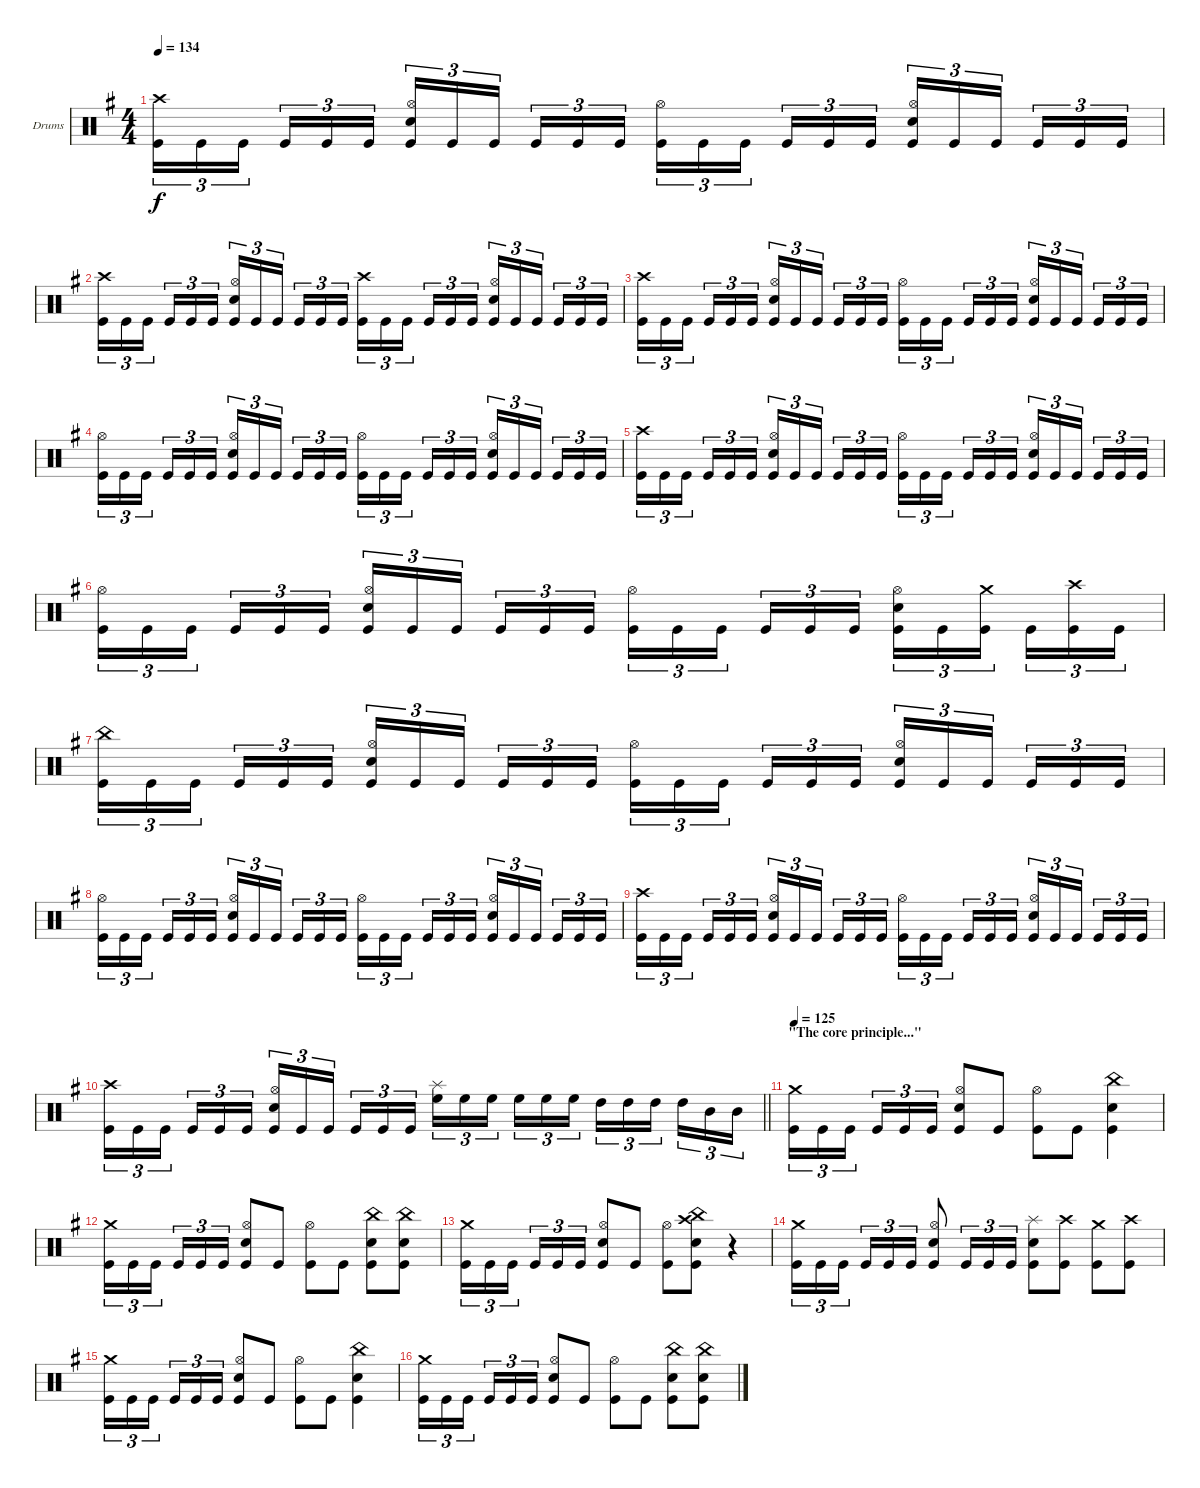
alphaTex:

\bracketExtendMode groupsimilarinstruments
\firstSystemTrackNameOrientation horizontal
\otherSystemsTrackNameOrientation horizontal
\track ("Drumkit" "Drums") {instrument percussion}
\staff {score}
\articulation defaults
\ts (4 4)
\tempo 134
\clef neutral
\scale
0.5
\ks g
("Crash high (hit)" "Kick (hit)").16{tu (3 2) dy f} "Kick (hit)".16{tu (3 2)} "Kick (hit)".16{tu (3 2)} "Kick (hit)".16{tu (3 2)} "Kick (hit)".16{tu (3 2)} "Kick (hit)".16{tu (3 2)} ("Hi-Hat (open)" "Snare (hit) 2" "Kick (hit)").16{tu (3 2)} "Kick (hit)".16{tu (3 2)} "Kick (hit)".16{tu (3 2)} "Kick (hit)".16{tu (3 2)} "Kick (hit)".16{tu (3 2)} "Kick (hit)".16{tu (3 2)} ("Hi-Hat (open)" "Kick (hit)").16{tu (3 2)} "Kick (hit)".16{tu (3 2)} "Kick (hit)".16{tu (3 2)} "Kick (hit)".16{tu (3 2)} "Kick (hit)".16{tu (3 2)} "Kick (hit)".16{tu (3 2)} ("Hi-Hat (open)" "Snare (hit) 2" "Kick (hit)").16{tu (3 2)} "Kick (hit)".16{tu (3 2)} "Kick (hit)".16{tu (3 2)} "Kick (hit)".16{tu (3 2)} "Kick (hit)".16{tu (3 2)} "Kick (hit)".16{tu (3 2)} |
\scale
0.5 ("Crash high (hit)" "Kick (hit)").16{tu (3 2)} "Kick (hit)".16{tu (3 2)} "Kick (hit)".16{tu (3 2)} "Kick (hit)".16{tu (3 2)} "Kick (hit)".16{tu (3 2)} "Kick (hit)".16{tu (3 2)} ("Hi-Hat (open)" "Snare (hit) 2" "Kick (hit)").16{tu (3 2)} "Kick (hit)".16{tu (3 2)} "Kick (hit)".16{tu (3 2)} "Kick (hit)".16{tu (3 2)} "Kick (hit)".16{tu (3 2)} "Kick (hit)".16{tu (3 2)} ("Crash high (hit)" "Kick (hit)").16{tu (3 2)} "Kick (hit)".16{tu (3 2)} "Kick (hit)".16{tu (3 2)} "Kick (hit)".16{tu (3 2)} "Kick (hit)".16{tu (3 2)} "Kick (hit)".16{tu (3 2)} ("Hi-Hat (open)" "Snare (hit) 2" "Kick (hit)").16{tu (3 2)} "Kick (hit)".16{tu (3 2)} "Kick (hit)".16{tu (3 2)} "Kick (hit)".16{tu (3 2)} "Kick (hit)".16{tu (3 2)} "Kick (hit)".16{tu (3 2)} |
\scale
0.5 ("Crash high (hit)" "Kick (hit)").16{tu (3 2)} "Kick (hit)".16{tu (3 2)} "Kick (hit)".16{tu (3 2)} "Kick (hit)".16{tu (3 2)} "Kick (hit)".16{tu (3 2)} "Kick (hit)".16{tu (3 2)} ("Hi-Hat (open)" "Snare (hit) 2" "Kick (hit)").16{tu (3 2)} "Kick (hit)".16{tu (3 2)} "Kick (hit)".16{tu (3 2)} "Kick (hit)".16{tu (3 2)} "Kick (hit)".16{tu (3 2)} "Kick (hit)".16{tu (3 2)} ("Hi-Hat (open)" "Kick (hit)").16{tu (3 2)} "Kick (hit)".16{tu (3 2)} "Kick (hit)".16{tu (3 2)} "Kick (hit)".16{tu (3 2)} "Kick (hit)".16{tu (3 2)} "Kick (hit)".16{tu (3 2)} ("Hi-Hat (open)" "Snare (hit) 2" "Kick (hit)").16{tu (3 2)} "Kick (hit)".16{tu (3 2)} "Kick (hit)".16{tu (3 2)} "Kick (hit)".16{tu (3 2)} "Kick (hit)".16{tu (3 2)} "Kick (hit)".16{tu (3 2)} |
\scale
0.5 ("Hi-Hat (open)" "Kick (hit)").16{tu (3 2)} "Kick (hit)".16{tu (3 2)} "Kick (hit)".16{tu (3 2)} "Kick (hit)".16{tu (3 2)} "Kick (hit)".16{tu (3 2)} "Kick (hit)".16{tu (3 2)} ("Hi-Hat (open)" "Snare (hit) 2" "Kick (hit)").16{tu (3 2)} "Kick (hit)".16{tu (3 2)} "Kick (hit)".16{tu (3 2)} "Kick (hit)".16{tu (3 2)} "Kick (hit)".16{tu (3 2)} "Kick (hit)".16{tu (3 2)} ("Hi-Hat (open)" "Kick (hit)").16{tu (3 2)} "Kick (hit)".16{tu (3 2)} "Kick (hit)".16{tu (3 2)} "Kick (hit)".16{tu (3 2)} "Kick (hit)".16{tu (3 2)} "Kick (hit)".16{tu (3 2)} ("Hi-Hat (open)" "Snare (hit) 2" "Kick (hit)").16{tu (3 2)} "Kick (hit)".16{tu (3 2)} "Kick (hit)".16{tu (3 2)} "Kick (hit)".16{tu (3 2)} "Kick (hit)".16{tu (3 2)} "Kick (hit)".16{tu (3 2)} |
\scale
0.5 ("Crash high (hit)" "Kick (hit)").16{tu (3 2)} "Kick (hit)".16{tu (3 2)} "Kick (hit)".16{tu (3 2)} "Kick (hit)".16{tu (3 2)} "Kick (hit)".16{tu (3 2)} "Kick (hit)".16{tu (3 2)} ("Hi-Hat (open)" "Snare (hit) 2" "Kick (hit)").16{tu (3 2)} "Kick (hit)".16{tu (3 2)} "Kick (hit)".16{tu (3 2)} "Kick (hit)".16{tu (3 2)} "Kick (hit)".16{tu (3 2)} "Kick (hit)".16{tu (3 2)} ("Hi-Hat (open)" "Kick (hit)").16{tu (3 2)} "Kick (hit)".16{tu (3 2)} "Kick (hit)".16{tu (3 2)} "Kick (hit)".16{tu (3 2)} "Kick (hit)".16{tu (3 2)} "Kick (hit)".16{tu (3 2)} ("Hi-Hat (open)" "Snare (hit) 2" "Kick (hit)").16{tu (3 2)} "Kick (hit)".16{tu (3 2)} "Kick (hit)".16{tu (3 2)} "Kick (hit)".16{tu (3 2)} "Kick (hit)".16{tu (3 2)} "Kick (hit)".16{tu (3 2)} |
\scale
0.5 ("Hi-Hat (open)" "Kick (hit)").16{tu (3 2)} "Kick (hit)".16{tu (3 2)} "Kick (hit)".16{tu (3 2)} "Kick (hit)".16{tu (3 2)} "Kick (hit)".16{tu (3 2)} "Kick (hit)".16{tu (3 2)} ("Hi-Hat (open)" "Snare (hit) 2" "Kick (hit)").16{tu (3 2)} "Kick (hit)".16{tu (3 2)} "Kick (hit)".16{tu (3 2)} "Kick (hit)".16{tu (3 2)} "Kick (hit)".16{tu (3 2)} "Kick (hit)".16{tu (3 2)} ("Hi-Hat (open)" "Kick (hit)").16{tu (3 2)} "Kick (hit)".16{tu (3 2)} "Kick (hit)".16{tu (3 2)} "Kick (hit)".16{tu (3 2)} "Kick (hit)".16{tu (3 2)} "Kick (hit)".16{tu (3 2)} ("Hi-Hat (open)" "Snare (hit) 2" "Kick (hit)").16{tu (3 2)} "Kick (hit)".16{tu (3 2)} ("Crash medium (hit)" "Kick (hit)").16{tu (3 2)} "Kick (hit)".16{tu (3 2)} ("Crash high (hit)" "Kick (hit)").16{tu (3 2)} "Kick (hit)".16{tu (3 2)} |
\scale
0.5 ("China (hit)" "Kick (hit)").16{tu (3 2)} "Kick (hit)".16{tu (3 2)} "Kick (hit)".16{tu (3 2)} "Kick (hit)".16{tu (3 2)} "Kick (hit)".16{tu (3 2)} "Kick (hit)".16{tu (3 2)} ("Hi-Hat (open)" "Snare (hit) 2" "Kick (hit)").16{tu (3 2)} "Kick (hit)".16{tu (3 2)} "Kick (hit)".16{tu (3 2)} "Kick (hit)".16{tu (3 2)} "Kick (hit)".16{tu (3 2)} "Kick (hit)".16{tu (3 2)} ("Hi-Hat (open)" "Kick (hit)").16{tu (3 2)} "Kick (hit)".16{tu (3 2)} "Kick (hit)".16{tu (3 2)} "Kick (hit)".16{tu (3 2)} "Kick (hit)".16{tu (3 2)} "Kick (hit)".16{tu (3 2)} ("Hi-Hat (open)" "Snare (hit) 2" "Kick (hit)").16{tu (3 2)} "Kick (hit)".16{tu (3 2)} "Kick (hit)".16{tu (3 2)} "Kick (hit)".16{tu (3 2)} "Kick (hit)".16{tu (3 2)} "Kick (hit)".16{tu (3 2)} |
\scale
0.5 ("Hi-Hat (open)" "Kick (hit)").16{tu (3 2)} "Kick (hit)".16{tu (3 2)} "Kick (hit)".16{tu (3 2)} "Kick (hit)".16{tu (3 2)} "Kick (hit)".16{tu (3 2)} "Kick (hit)".16{tu (3 2)} ("Hi-Hat (open)" "Snare (hit) 2" "Kick (hit)").16{tu (3 2)} "Kick (hit)".16{tu (3 2)} "Kick (hit)".16{tu (3 2)} "Kick (hit)".16{tu (3 2)} "Kick (hit)".16{tu (3 2)} "Kick (hit)".16{tu (3 2)} ("Hi-Hat (open)" "Kick (hit)").16{tu (3 2)} "Kick (hit)".16{tu (3 2)} "Kick (hit)".16{tu (3 2)} "Kick (hit)".16{tu (3 2)} "Kick (hit)".16{tu (3 2)} "Kick (hit)".16{tu (3 2)} ("Hi-Hat (open)" "Snare (hit) 2" "Kick (hit)").16{tu (3 2)} "Kick (hit)".16{tu (3 2)} "Kick (hit)".16{tu (3 2)} "Kick (hit)".16{tu (3 2)} "Kick (hit)".16{tu (3 2)} "Kick (hit)".16{tu (3 2)} |
\scale
0.5 ("Crash high (hit)" "Kick (hit)").16{tu (3 2)} "Kick (hit)".16{tu (3 2)} "Kick (hit)".16{tu (3 2)} "Kick (hit)".16{tu (3 2)} "Kick (hit)".16{tu (3 2)} "Kick (hit)".16{tu (3 2)} ("Hi-Hat (open)" "Snare (hit) 2" "Kick (hit)").16{tu (3 2)} "Kick (hit)".16{tu (3 2)} "Kick (hit)".16{tu (3 2)} "Kick (hit)".16{tu (3 2)} "Kick (hit)".16{tu (3 2)} "Kick (hit)".16{tu (3 2)} ("Hi-Hat (open)" "Kick (hit)").16{tu (3 2)} "Kick (hit)".16{tu (3 2)} "Kick (hit)".16{tu (3 2)} "Kick (hit)".16{tu (3 2)} "Kick (hit)".16{tu (3 2)} "Kick (hit)".16{tu (3 2)} ("Hi-Hat (open)" "Snare (hit) 2" "Kick (hit)").16{tu (3 2)} "Kick (hit)".16{tu (3 2)} "Kick (hit)".16{tu (3 2)} "Kick (hit)".16{tu (3 2)} "Kick (hit)".16{tu (3 2)} "Kick (hit)".16{tu (3 2)} |
\scale
0.5
\barLineRight lightlight
("Crash high (hit)" "Kick (hit)").16{tu (3 2)} "Kick (hit)".16{tu (3 2)} "Kick (hit)".16{tu (3 2)} "Kick (hit)".16{tu (3 2)} "Kick (hit)".16{tu (3 2)} "Kick (hit)".16{tu (3 2)} ("Hi-Hat (open)" "Snare (hit) 2" "Kick (hit)").16{tu (3 2)} "Kick (hit)".16{tu (3 2)} "Kick (hit)".16{tu (3 2)} "Kick (hit)".16{tu (3 2)} "Kick (hit)".16{tu (3 2)} "Kick (hit)".16{tu (3 2)} ("Splash (hit)" "High Floor Tom (hit)").16{tu (3 2)} "High Floor Tom (hit)".16{tu (3 2)} "High Floor Tom (hit)".16{tu (3 2)} "High Floor Tom (hit)".16{tu (3 2)} "High Floor Tom (hit)".16{tu (3 2)} "High Floor Tom (hit)".16{tu (3 2)} "High Tom (hit)".16{tu (3 2)} "High Tom (hit)".16{tu (3 2)} "High Tom (hit)".16{tu (3 2)} "High Tom (hit)".16{tu (3 2)} "Mid Tom (hit)".16{tu (3 2)} "Mid Tom (hit)".16{tu (3 2)} |
\section ("" "\"The core principle...\"")
\tempo 125
\scale
0.485714 ("Crash medium (hit)" "Kick (hit)").16{tu (3 2)} "Kick (hit)".16{tu (3 2)} "Kick (hit)".16{tu (3 2)} "Kick (hit)".16{tu (3 2)} "Kick (hit)".16{tu (3 2)} "Kick (hit)".16{tu (3 2)} ("Hi-Hat (open)" "Snare (hit) 2" "Kick (hit)").8 "Kick (hit)".8 ("Hi-Hat (open)" "Kick (hit)").8 "Kick (hit)".8 ("China (hit)" "Snare (hit) 2" "Kick (hit)").4 |
\scale
0.514286 ("Crash medium (hit)" "Kick (hit)").16{tu (3 2)} "Kick (hit)".16{tu (3 2)} "Kick (hit)".16{tu (3 2)} "Kick (hit)".16{tu (3 2)} "Kick (hit)".16{tu (3 2)} "Kick (hit)".16{tu (3 2)} ("Hi-Hat (open)" "Snare (hit) 2" "Kick (hit)").8 "Kick (hit)".8 ("Hi-Hat (open)" "Kick (hit)").8 "Kick (hit)".8 ("China (hit)" "Snare (hit) 2" "Kick (hit)").8 ("China (hit)" "Snare (hit) 2" "Kick (hit)").8 |
\scale
0.468504 ("Crash medium (hit)" "Kick (hit)").16{tu (3 2)} "Kick (hit)".16{tu (3 2)} "Kick (hit)".16{tu (3 2)} "Kick (hit)".16{tu (3 2)} "Kick (hit)".16{tu (3 2)} "Kick (hit)".16{tu (3 2)} ("Hi-Hat (open)" "Snare (hit) 2" "Kick (hit)").8 "Kick (hit)".8 ("Hi-Hat (open)" "Kick (hit)").8 ("China (hit)" "Crash high (hit)" "Snare (hit) 2" "Kick (hit)").8 r.4 |
\scale
0.531496 ("Crash medium (hit)" "Kick (hit)").16{tu (3 2)} "Kick (hit)".16{tu (3 2)} "Kick (hit)".16{tu (3 2)} "Kick (hit)".16{tu (3 2)} "Kick (hit)".16{tu (3 2)} "Kick (hit)".16{tu (3 2)} ("Hi-Hat (open)" "Snare (hit) 2" "Kick (hit)").8 "Kick (hit)".16{tu (3 2)} "Kick (hit)".16{tu (3 2)} "Kick (hit)".16{tu (3 2)} ("Splash (hit)" "Snare (hit) 2" "Kick (hit)").8 ("Crash high (hit)" "Kick (hit)").8 ("Crash medium (hit)" "Kick (hit)").8 ("Crash high (hit)" "Kick (hit)").8 |
\scale
0.485714 ("Crash medium (hit)" "Kick (hit)").16{tu (3 2)} "Kick (hit)".16{tu (3 2)} "Kick (hit)".16{tu (3 2)} "Kick (hit)".16{tu (3 2)} "Kick (hit)".16{tu (3 2)} "Kick (hit)".16{tu (3 2)} ("Hi-Hat (open)" "Snare (hit) 2" "Kick (hit)").8 "Kick (hit)".8 ("Hi-Hat (open)" "Kick (hit)").8 "Kick (hit)".8 ("China (hit)" "Snare (hit) 2" "Kick (hit)").4 |
\scale
0.514286 ("Crash medium (hit)" "Kick (hit)").16{tu (3 2)} "Kick (hit)".16{tu (3 2)} "Kick (hit)".16{tu (3 2)} "Kick (hit)".16{tu (3 2)} "Kick (hit)".16{tu (3 2)} "Kick (hit)".16{tu (3 2)} ("Hi-Hat (open)" "Snare (hit) 2" "Kick (hit)").8 "Kick (hit)".8 ("Hi-Hat (open)" "Kick (hit)").8 "Kick (hit)".8 ("China (hit)" "Snare (hit) 2" "Kick (hit)").8 ("China (hit)" "Snare (hit) 2" "Kick (hit)").8
